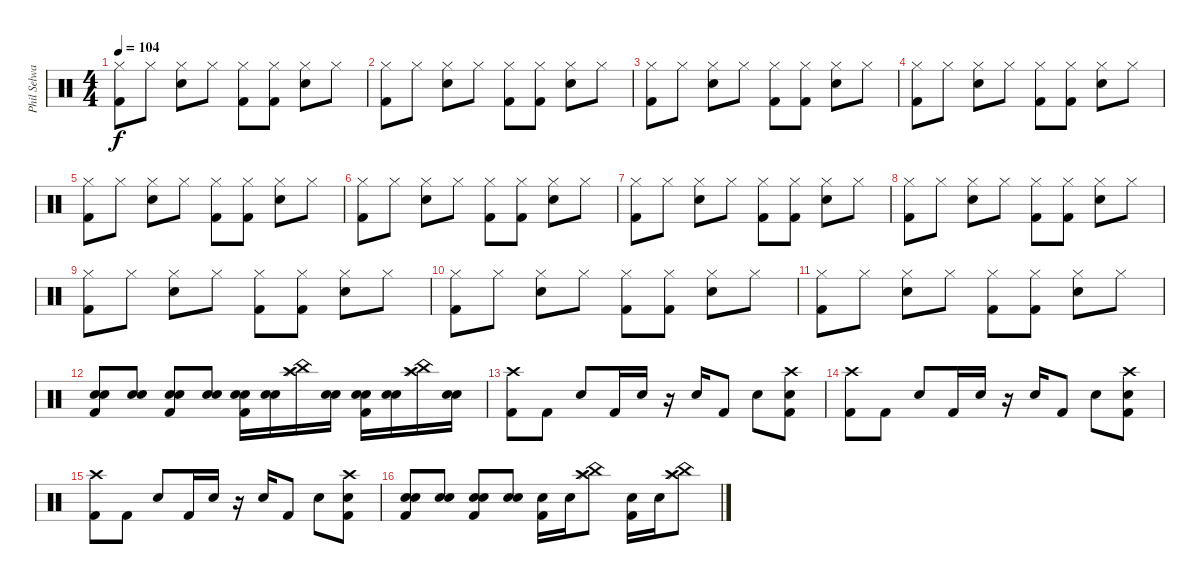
\track ("Phil Selway" "Phil Selwa") {instrument percussion}
\staff {score}
\articulation defaults
\ts (4 4)
\tempo 104
\clef neutral
\ks c
("Kick (hit) 2" "Hi-Hat (closed)").8{dy f} "Hi-Hat (closed)".8 ("Electric Snare (hit)" "Hi-Hat (closed)").8 "Hi-Hat (closed)".8 ("Kick (hit) 2" "Hi-Hat (closed)").8 ("Kick (hit) 2" "Hi-Hat (closed)").8 ("Electric Snare (hit)" "Hi-Hat (closed)").8 "Hi-Hat (closed)".8 |
("Kick (hit) 2" "Hi-Hat (closed)").8 "Hi-Hat (closed)".8 ("Electric Snare (hit)" "Hi-Hat (closed)").8 "Hi-Hat (closed)".8 ("Kick (hit) 2" "Hi-Hat (closed)").8 ("Kick (hit) 2" "Hi-Hat (closed)").8 ("Electric Snare (hit)" "Hi-Hat (closed)").8 "Hi-Hat (closed)".8 |
("Kick (hit) 2" "Hi-Hat (closed)").8 "Hi-Hat (closed)".8 ("Electric Snare (hit)" "Hi-Hat (closed)").8 "Hi-Hat (closed)".8 ("Kick (hit) 2" "Hi-Hat (closed)").8 ("Kick (hit) 2" "Hi-Hat (closed)").8 ("Electric Snare (hit)" "Hi-Hat (closed)").8 "Hi-Hat (closed)".8 |
("Kick (hit) 2" "Hi-Hat (closed)").8 "Hi-Hat (closed)".8 ("Electric Snare (hit)" "Hi-Hat (closed)").8 "Hi-Hat (closed)".8 ("Kick (hit) 2" "Hi-Hat (closed)").8 ("Kick (hit) 2" "Hi-Hat (closed)").8 ("Electric Snare (hit)" "Hi-Hat (closed)").8 "Hi-Hat (closed)".8 |
("Kick (hit) 2" "Hi-Hat (closed)").8 "Hi-Hat (closed)".8 ("Electric Snare (hit)" "Hi-Hat (closed)").8 "Hi-Hat (closed)".8 ("Kick (hit) 2" "Hi-Hat (closed)").8 ("Kick (hit) 2" "Hi-Hat (closed)").8 ("Electric Snare (hit)" "Hi-Hat (closed)").8 "Hi-Hat (closed)".8 |
("Kick (hit) 2" "Hi-Hat (closed)").8 "Hi-Hat (closed)".8 ("Electric Snare (hit)" "Hi-Hat (closed)").8 "Hi-Hat (closed)".8 ("Kick (hit) 2" "Hi-Hat (closed)").8 ("Kick (hit) 2" "Hi-Hat (closed)").8 ("Electric Snare (hit)" "Hi-Hat (closed)").8 "Hi-Hat (closed)".8 |
("Kick (hit) 2" "Hi-Hat (closed)").8 "Hi-Hat (closed)".8 ("Electric Snare (hit)" "Hi-Hat (closed)").8 "Hi-Hat (closed)".8 ("Kick (hit) 2" "Hi-Hat (closed)").8 ("Kick (hit) 2" "Hi-Hat (closed)").8 ("Electric Snare (hit)" "Hi-Hat (closed)").8 "Hi-Hat (closed)".8 |
("Kick (hit) 2" "Hi-Hat (closed)").8 "Hi-Hat (closed)".8 ("Electric Snare (hit)" "Hi-Hat (closed)").8 "Hi-Hat (closed)".8 ("Kick (hit) 2" "Hi-Hat (closed)").8 ("Kick (hit) 2" "Hi-Hat (closed)").8 ("Electric Snare (hit)" "Hi-Hat (closed)").8 "Hi-Hat (closed)".8 |
("Kick (hit) 2" "Hi-Hat (closed)").8 "Hi-Hat (closed)".8 ("Electric Snare (hit)" "Hi-Hat (closed)").8 "Hi-Hat (closed)".8 ("Kick (hit) 2" "Hi-Hat (closed)").8 ("Kick (hit) 2" "Hi-Hat (closed)").8 ("Electric Snare (hit)" "Hi-Hat (closed)").8 "Hi-Hat (closed)".8 |
("Kick (hit) 2" "Hi-Hat (closed)").8 "Hi-Hat (closed)".8 ("Electric Snare (hit)" "Hi-Hat (closed)").8 "Hi-Hat (closed)".8 ("Kick (hit) 2" "Hi-Hat (closed)").8 ("Kick (hit) 2" "Hi-Hat (closed)").8 ("Electric Snare (hit)" "Hi-Hat (closed)").8 "Hi-Hat (closed)".8 |
("Kick (hit) 2" "Hi-Hat (closed)").8 "Hi-Hat (closed)".8 ("Electric Snare (hit)" "Hi-Hat (closed)").8 "Hi-Hat (closed)".8 ("Kick (hit) 2" "Hi-Hat (closed)").8 ("Kick (hit) 2" "Hi-Hat (closed)").8 ("Electric Snare (hit)" "Hi-Hat (closed)").8 "Hi-Hat (closed)".8 |
("Electric Snare (hit)" "Snare (hit) 2" "Kick (hit) 2").8 ("Electric Snare (hit)" "Snare (hit) 2").8 ("Electric Snare (hit)" "Snare (hit) 2" "Kick (hit) 2").8 ("Electric Snare (hit)" "Snare (hit) 2").8 ("Electric Snare (hit)" "Kick (hit) 2" "Snare (hit) 2").16 ("Electric Snare (hit)" "Snare (hit) 2").16 ("Splash (hit)" "China (hit)" "Crash high (hit)").16 ("Electric Snare (hit)" "Snare (hit) 2").16 ("Electric Snare (hit)" "Kick (hit) 2" "Snare (hit) 2").16 ("Electric Snare (hit)" "Snare (hit) 2").16 ("Splash (hit)" "China (hit)" "Crash high (hit)").16 ("Electric Snare (hit)" "Snare (hit) 2").16 |
("Kick (hit) 2" "Crash high (hit)").8 "Kick (hit) 2".8 "Electric Snare (hit)".8 "Kick (hit) 2".16 "Electric Snare (hit)".16 r.16 "Electric Snare (hit)".16 "Kick (hit) 2".8 "Electric Snare (hit)".8 ("Kick (hit) 2" "Crash high (hit)" "Electric Snare (hit)").8 |
("Kick (hit) 2" "Crash high (hit)").8 "Kick (hit) 2".8 "Electric Snare (hit)".8 "Kick (hit) 2".16 "Electric Snare (hit)".16 r.16 "Electric Snare (hit)".16 "Kick (hit) 2".8 "Electric Snare (hit)".8 ("Kick (hit) 2" "Crash high (hit)" "Electric Snare (hit)").8 |
("Kick (hit) 2" "Crash high (hit)").8 "Kick (hit) 2".8 "Electric Snare (hit)".8 "Kick (hit) 2".16 "Electric Snare (hit)".16 r.16 "Electric Snare (hit)".16 "Kick (hit) 2".8 "Electric Snare (hit)".8 ("Kick (hit) 2" "Crash high (hit)" "Electric Snare (hit)").8 |
("Electric Snare (hit)" "Snare (hit) 2" "Kick (hit) 2").8 ("Electric Snare (hit)" "Snare (hit) 2").8 ("Electric Snare (hit)" "Snare (hit) 2" "Kick (hit) 2").8 ("Electric Snare (hit)" "Snare (hit) 2").8 ("Electric Snare (hit)" "Kick (hit) 2").16 "Electric Snare (hit)".16 ("Splash (hit)" "China (hit)" "Crash high (hit)").8 ("Electric Snare (hit)" "Kick (hit) 2").16 "Electric Snare (hit)".16 ("Splash (hit)" "China (hit)" "Crash high (hit)").8
